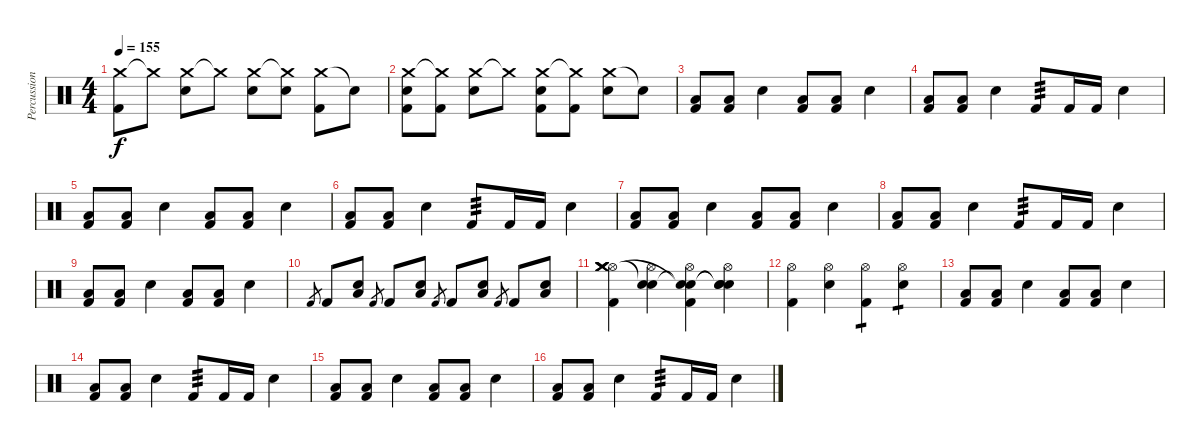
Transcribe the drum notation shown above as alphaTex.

\track ("Percussioni" "Percussion") {instrument percussion}
\staff {score}
\articulation defaults
\ts (4 4)
\tempo 155
\clef neutral
\ks c
("Crash medium (hit)" "Kick (hit) 2").8{dy f} "Crash medium (hit)"{t}.8 ("Crash medium (hit)" "Snare (hit) 2").8 "Crash medium (hit)"{t}.8 ("Crash medium (hit)" "Snare (hit) 2").8 ("Crash medium (hit)"{t} "Snare (hit) 2").8 ("Crash medium (hit)" "Kick (hit) 2").8 "Snare (hit)"{t}.8 |
("Crash medium (hit)" "Snare (hit) 2" "Kick (hit) 2").8 ("Crash medium (hit)"{t} "Kick (hit) 2").8 ("Crash medium (hit)" "Snare (hit) 2").8 "Crash medium (hit)"{t}.8 ("Crash medium (hit)" "Snare (hit) 2" "Kick (hit) 2").8 ("Crash medium (hit)"{t} "Kick (hit) 2").8 ("Crash medium (hit)" "Snare (hit) 2").8 "Snare (hit)"{t}.8 |
("Kick (hit) 2" "Low Tom (hit)").8 ("Kick (hit) 2" "Low Tom (hit)").8 "Snare (hit) 2".4 ("Kick (hit) 2" "Low Tom (hit)").8 ("Kick (hit) 2" "Low Tom (hit)").8 "Snare (hit) 2".4 |
("Kick (hit) 2" "Low Tom (hit)").8 ("Kick (hit) 2" "Low Tom (hit)").8 "Snare (hit) 2".4 "Kick (hit) 2".8{tp 3} "Kick (hit) 2".16 "Kick (hit) 2".16 "Snare (hit) 2".4 |
("Kick (hit) 2" "Low Tom (hit)").8 ("Kick (hit) 2" "Low Tom (hit)").8 "Snare (hit) 2".4 ("Kick (hit) 2" "Low Tom (hit)").8 ("Kick (hit) 2" "Low Tom (hit)").8 "Snare (hit) 2".4 |
("Kick (hit) 2" "Low Tom (hit)").8 ("Kick (hit) 2" "Low Tom (hit)").8 "Snare (hit) 2".4 "Kick (hit) 2".8{tp 3} "Kick (hit) 2".16 "Kick (hit) 2".16 "Snare (hit) 2".4 |
("Kick (hit) 2" "Low Tom (hit)").8 ("Kick (hit) 2" "Low Tom (hit)").8 "Snare (hit) 2".4 ("Kick (hit) 2" "Low Tom (hit)").8 ("Kick (hit) 2" "Low Tom (hit)").8 "Snare (hit) 2".4 |
("Kick (hit) 2" "Low Tom (hit)").8 ("Kick (hit) 2" "Low Tom (hit)").8 "Snare (hit) 2".4 "Kick (hit) 2".8{tp 3} "Kick (hit) 2".16 "Kick (hit) 2".16 "Snare (hit) 2".4 |
("Kick (hit) 2" "Low Tom (hit)").8 ("Kick (hit) 2" "Low Tom (hit)").8 "Snare (hit) 2".4 ("Kick (hit) 2" "Low Tom (hit)").8 ("Kick (hit) 2" "Low Tom (hit)").8 "Snare (hit) 2".4 |
"Kick (hit) 2".8{gr} "Kick (hit) 2".8 ("Snare (hit) 2" "Low Floor Tom (hit)").8 "Kick (hit) 2".8{gr} "Kick (hit) 2".8 ("Snare (hit) 2" "Low Tom (hit)").8 "Kick (hit) 2".8{gr} "Kick (hit) 2".8 ("Snare (hit) 2" "Low Floor Tom (hit)").8 "Kick (hit) 2".8{gr} "Kick (hit) 2".8 ("Snare (hit) 2" "Low Tom (hit)").8 |
("Hi-Hat (open)" "Kick (hit) 2" "Crash medium (hit)" "Crash medium (hit)" "Crash medium (hit)").4 ("Snare (hit) 2" "Hi-Hat (open)" "Snare (hit)"{t}).4 ("Hi-Hat (open)" "Kick (hit) 2" "Snare (hit)"{t} "Snare (hit)"{t}).4 ("Snare (hit) 2" "Hi-Hat (open)" "Snare (hit)"{t} "Snare (hit)"{t}).4 |
("Hi-Hat (open)" "Kick (hit) 2").4 ("Snare (hit) 2" "Hi-Hat (open)").4 ("Hi-Hat (open)" "Kick (hit) 2").4{tp 1} ("Snare (hit) 2" "Hi-Hat (open)").4{tp 1} |
("Kick (hit) 2" "Low Tom (hit)").8 ("Kick (hit) 2" "Low Tom (hit)").8 "Snare (hit) 2".4 ("Kick (hit) 2" "Low Tom (hit)").8 ("Kick (hit) 2" "Low Tom (hit)").8 "Snare (hit) 2".4 |
("Kick (hit) 2" "Low Tom (hit)").8 ("Kick (hit) 2" "Low Tom (hit)").8 "Snare (hit) 2".4 "Kick (hit) 2".8{tp 3} "Kick (hit) 2".16 "Kick (hit) 2".16 "Snare (hit) 2".4 |
("Kick (hit) 2" "Low Tom (hit)").8 ("Kick (hit) 2" "Low Tom (hit)").8 "Snare (hit) 2".4 ("Kick (hit) 2" "Low Tom (hit)").8 ("Kick (hit) 2" "Low Tom (hit)").8 "Snare (hit) 2".4 |
("Kick (hit) 2" "Low Tom (hit)").8 ("Kick (hit) 2" "Low Tom (hit)").8 "Snare (hit) 2".4 "Kick (hit) 2".8{tp 3} "Kick (hit) 2".16 "Kick (hit) 2".16 "Snare (hit) 2".4
